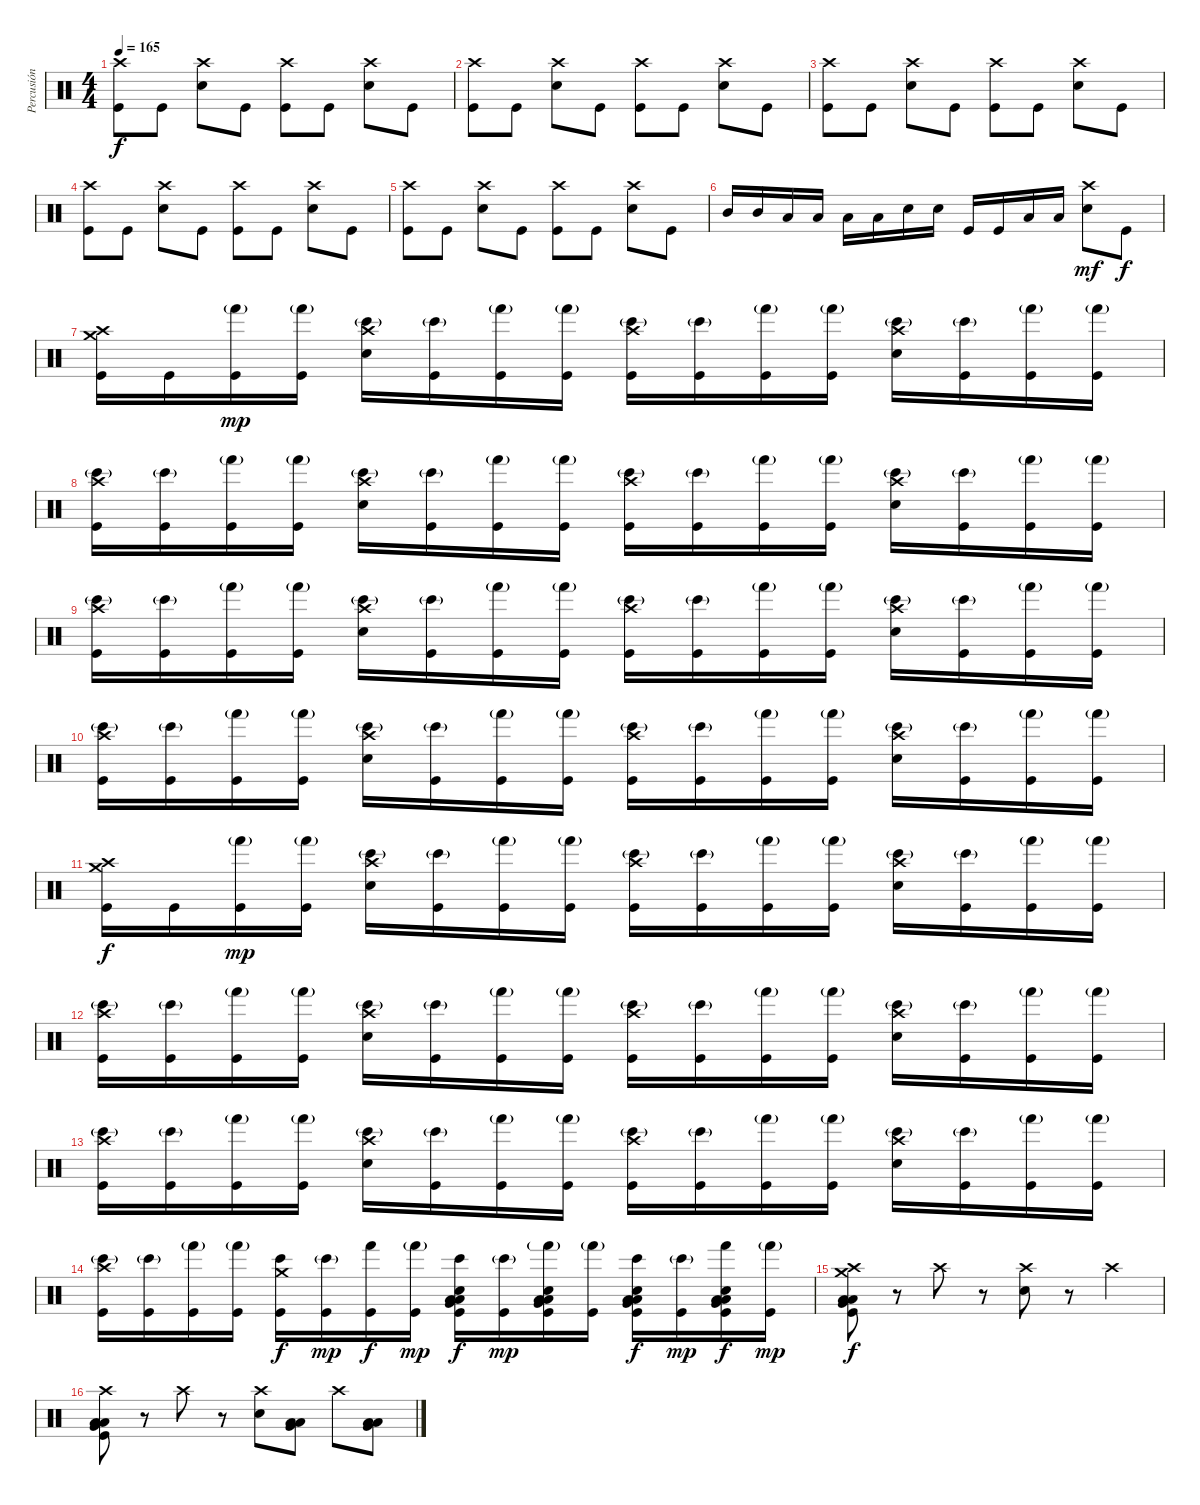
\track ("Percusión" "Percusión") {instrument percussion}
\staff {score}
\articulation defaults
\ts (4 4)
\tempo 165
\clef neutral
\ks c
("Crash high (hit)" "Kick (hit)").8{dy f} "Kick (hit)".8 ("Crash high (hit)" "Electric Snare (hit)").8 "Kick (hit)".8 ("Crash high (hit)" "Kick (hit)").8 "Kick (hit)".8 ("Crash high (hit)" "Electric Snare (hit)").8 "Kick (hit)".8 |
("Crash high (hit)" "Kick (hit)").8 "Kick (hit)".8 ("Crash high (hit)" "Electric Snare (hit)").8 "Kick (hit)".8 ("Crash high (hit)" "Kick (hit)").8 "Kick (hit)".8 ("Crash high (hit)" "Electric Snare (hit)").8 "Kick (hit)".8 |
("Crash high (hit)" "Kick (hit)").8 "Kick (hit)".8 ("Crash high (hit)" "Electric Snare (hit)").8 "Kick (hit)".8 ("Crash high (hit)" "Kick (hit)").8 "Kick (hit)".8 ("Crash high (hit)" "Electric Snare (hit)").8 "Kick (hit)".8 |
("Crash high (hit)" "Kick (hit)").8 "Kick (hit)".8 ("Crash high (hit)" "Electric Snare (hit)").8 "Kick (hit)".8 ("Crash high (hit)" "Kick (hit)").8 "Kick (hit)".8 ("Crash high (hit)" "Electric Snare (hit)").8 "Kick (hit)".8 |
("Crash high (hit)" "Kick (hit)").8 "Kick (hit)".8 ("Crash high (hit)" "Electric Snare (hit)").8 "Kick (hit)".8 ("Crash high (hit)" "Kick (hit)").8 "Kick (hit)".8 ("Crash high (hit)" "Electric Snare (hit)").8 "Kick (hit)".8 |
"Mid Tom (hit)".16 "Mid Tom (hit)".16 "Low Tom (hit)".16 "Low Tom (hit)".16 "Low Tom (hit)".16 "Low Tom (hit)".16 "Electric Snare (hit)".16 "Electric Snare (hit)".16 "Kick (hit)".16 "Kick (hit)".16 "Low Tom (hit)".16 "Low Tom (hit)".16 ("Crash high (hit)" "Electric Snare (hit)").8{dy mf} "Kick (hit)".8{dy f} |
("Crash medium (hit)" "Crash high (hit)" "Kick (hit)").16 "Kick (hit)".16 ("Hand (hit)"{g} "Kick (hit)").16{dy mp} ("Hand (hit)"{g} "Kick (hit)").16 ("Bongo High (hit)"{g} "Crash high (hit)" "Electric Snare (hit)").16 ("Bongo High (hit)"{g} "Kick (hit)").16 ("Hand (hit)"{g} "Kick (hit)").16 ("Hand (hit)"{g} "Kick (hit)").16 ("Bongo High (hit)"{g} "Crash high (hit)" "Kick (hit)").16 ("Bongo High (hit)"{g} "Kick (hit)").16 ("Hand (hit)"{g} "Kick (hit)").16 ("Hand (hit)"{g} "Kick (hit)").16 ("Bongo High (hit)"{g} "Crash high (hit)" "Electric Snare (hit)").16 ("Bongo High (hit)"{g} "Kick (hit)").16 ("Hand (hit)"{g} "Kick (hit)").16 ("Hand (hit)"{g} "Kick (hit)").16 |
("Bongo High (hit)"{g} "Crash high (hit)" "Kick (hit)").16 ("Bongo High (hit)"{g} "Kick (hit)").16 ("Hand (hit)"{g} "Kick (hit)").16 ("Hand (hit)"{g} "Kick (hit)").16 ("Bongo High (hit)"{g} "Crash high (hit)" "Electric Snare (hit)").16 ("Bongo High (hit)"{g} "Kick (hit)").16 ("Hand (hit)"{g} "Kick (hit)").16 ("Hand (hit)"{g} "Kick (hit)").16 ("Bongo High (hit)"{g} "Crash high (hit)" "Kick (hit)").16 ("Bongo High (hit)"{g} "Kick (hit)").16 ("Hand (hit)"{g} "Kick (hit)").16 ("Hand (hit)"{g} "Kick (hit)").16 ("Bongo High (hit)"{g} "Crash high (hit)" "Electric Snare (hit)").16 ("Bongo High (hit)"{g} "Kick (hit)").16 ("Hand (hit)"{g} "Kick (hit)").16 ("Hand (hit)"{g} "Kick (hit)").16 |
("Bongo High (hit)"{g} "Crash high (hit)" "Kick (hit)").16 ("Bongo High (hit)"{g} "Kick (hit)").16 ("Hand (hit)"{g} "Kick (hit)").16 ("Hand (hit)"{g} "Kick (hit)").16 ("Bongo High (hit)"{g} "Crash high (hit)" "Electric Snare (hit)").16 ("Bongo High (hit)"{g} "Kick (hit)").16 ("Hand (hit)"{g} "Kick (hit)").16 ("Hand (hit)"{g} "Kick (hit)").16 ("Bongo High (hit)"{g} "Crash high (hit)" "Kick (hit)").16 ("Bongo High (hit)"{g} "Kick (hit)").16 ("Hand (hit)"{g} "Kick (hit)").16 ("Hand (hit)"{g} "Kick (hit)").16 ("Bongo High (hit)"{g} "Crash high (hit)" "Electric Snare (hit)").16 ("Bongo High (hit)"{g} "Kick (hit)").16 ("Hand (hit)"{g} "Kick (hit)").16 ("Hand (hit)"{g} "Kick (hit)").16 |
("Bongo High (hit)"{g} "Crash high (hit)" "Kick (hit)").16 ("Bongo High (hit)"{g} "Kick (hit)").16 ("Hand (hit)"{g} "Kick (hit)").16 ("Hand (hit)"{g} "Kick (hit)").16 ("Bongo High (hit)"{g} "Crash high (hit)" "Electric Snare (hit)").16 ("Bongo High (hit)"{g} "Kick (hit)").16 ("Hand (hit)"{g} "Kick (hit)").16 ("Hand (hit)"{g} "Kick (hit)").16 ("Bongo High (hit)"{g} "Crash high (hit)" "Kick (hit)").16 ("Bongo High (hit)"{g} "Kick (hit)").16 ("Hand (hit)"{g} "Kick (hit)").16 ("Hand (hit)"{g} "Kick (hit)").16 ("Bongo High (hit)"{g} "Crash high (hit)" "Electric Snare (hit)").16 ("Bongo High (hit)"{g} "Kick (hit)").16 ("Hand (hit)"{g} "Kick (hit)").16 ("Hand (hit)"{g} "Kick (hit)").16 |
("Crash medium (hit)" "Crash high (hit)" "Kick (hit)").16{dy f} "Kick (hit)".16 ("Hand (hit)"{g} "Kick (hit)").16{dy mp} ("Hand (hit)"{g} "Kick (hit)").16 ("Bongo High (hit)"{g} "Crash high (hit)" "Electric Snare (hit)").16 ("Bongo High (hit)"{g} "Kick (hit)").16 ("Hand (hit)"{g} "Kick (hit)").16 ("Hand (hit)"{g} "Kick (hit)").16 ("Bongo High (hit)"{g} "Crash high (hit)" "Kick (hit)").16 ("Bongo High (hit)"{g} "Kick (hit)").16 ("Hand (hit)"{g} "Kick (hit)").16 ("Hand (hit)"{g} "Kick (hit)").16 ("Bongo High (hit)"{g} "Crash high (hit)" "Electric Snare (hit)").16 ("Bongo High (hit)"{g} "Kick (hit)").16 ("Hand (hit)"{g} "Kick (hit)").16 ("Hand (hit)"{g} "Kick (hit)").16 |
("Bongo High (hit)"{g} "Crash high (hit)" "Kick (hit)").16 ("Bongo High (hit)"{g} "Kick (hit)").16 ("Hand (hit)"{g} "Kick (hit)").16 ("Hand (hit)"{g} "Kick (hit)").16 ("Bongo High (hit)"{g} "Crash high (hit)" "Electric Snare (hit)").16 ("Bongo High (hit)"{g} "Kick (hit)").16 ("Hand (hit)"{g} "Kick (hit)").16 ("Hand (hit)"{g} "Kick (hit)").16 ("Bongo High (hit)"{g} "Crash high (hit)" "Kick (hit)").16 ("Bongo High (hit)"{g} "Kick (hit)").16 ("Hand (hit)"{g} "Kick (hit)").16 ("Hand (hit)"{g} "Kick (hit)").16 ("Bongo High (hit)"{g} "Crash high (hit)" "Electric Snare (hit)").16 ("Bongo High (hit)"{g} "Kick (hit)").16 ("Hand (hit)"{g} "Kick (hit)").16 ("Hand (hit)"{g} "Kick (hit)").16 |
("Bongo High (hit)"{g} "Crash high (hit)" "Kick (hit)").16 ("Bongo High (hit)"{g} "Kick (hit)").16 ("Hand (hit)"{g} "Kick (hit)").16 ("Hand (hit)"{g} "Kick (hit)").16 ("Bongo High (hit)"{g} "Crash high (hit)" "Electric Snare (hit)").16 ("Bongo High (hit)"{g} "Kick (hit)").16 ("Hand (hit)"{g} "Kick (hit)").16 ("Hand (hit)"{g} "Kick (hit)").16 ("Bongo High (hit)"{g} "Crash high (hit)" "Kick (hit)").16 ("Bongo High (hit)"{g} "Kick (hit)").16 ("Hand (hit)"{g} "Kick (hit)").16 ("Hand (hit)"{g} "Kick (hit)").16 ("Bongo High (hit)"{g} "Crash high (hit)" "Electric Snare (hit)").16 ("Bongo High (hit)"{g} "Kick (hit)").16 ("Hand (hit)"{g} "Kick (hit)").16 ("Hand (hit)"{g} "Kick (hit)").16 |
("Bongo High (hit)"{g} "Crash high (hit)" "Kick (hit)").16 ("Bongo High (hit)"{g} "Kick (hit)").16 ("Hand (hit)"{g} "Kick (hit)").16 ("Hand (hit)"{g} "Kick (hit)").16 ("Bongo High (hit)" "Crash medium (hit)" "Kick (hit)").16{dy f} ("Bongo High (hit)"{g} "Kick (hit)").16{dy mp} ("Hand (hit)" "Kick (hit)").16{dy f} ("Hand (hit)"{g} "Kick (hit)").16{dy mp} ("Low Floor Tom (hit)" "Bongo High (hit)" "Kick (hit)" "Very Low Tom (hit)" "Low Tom (hit)" "Electric Snare (hit)").16{dy f} ("Bongo High (hit)"{g} "Kick (hit)").16{dy mp} ("Low Floor Tom (hit)" "Hand (hit)"{g} "Kick (hit)" "Very Low Tom (hit)" "Low Tom (hit)" "Electric Snare (hit)").16 ("Hand (hit)"{g} "Kick (hit)").16 ("Low Floor Tom (hit)" "Bongo High (hit)" "Kick (hit)" "Very Low Tom (hit)" "Low Tom (hit)" "Electric Snare (hit)").16{dy f} ("Bongo High (hit)"{g} "Kick (hit)").16{dy mp} ("Low Floor Tom (hit)" "Hand (hit)" "Kick (hit)" "Very Low Tom (hit)" "Low Tom (hit)" "Electric Snare (hit)").16{dy f} ("Hand (hit)"{g} "Kick (hit)").16{dy mp} |
("Low Floor Tom (hit)" "Very Low Tom (hit)" "Low Tom (hit)" "Crash medium (hit)" "Crash high (hit)" "Kick (hit)").8{dy f} r.8 "Crash high (hit)".8 r.8 ("Crash high (hit)" "Electric Snare (hit)").8 r.8 "Crash high (hit)".4 |
("Low Floor Tom (hit)" "Very Low Tom (hit)" "Low Tom (hit)" "Crash high (hit)" "Kick (hit)").8 r.8 "Crash high (hit)".8 r.8 ("Crash high (hit)" "Electric Snare (hit)").8 ("Low Floor Tom (hit)" "Very Low Tom (hit)" "Low Tom (hit)").8 "Crash high (hit)".8 ("Low Floor Tom (hit)" "Very Low Tom (hit)" "Low Tom (hit)").8
